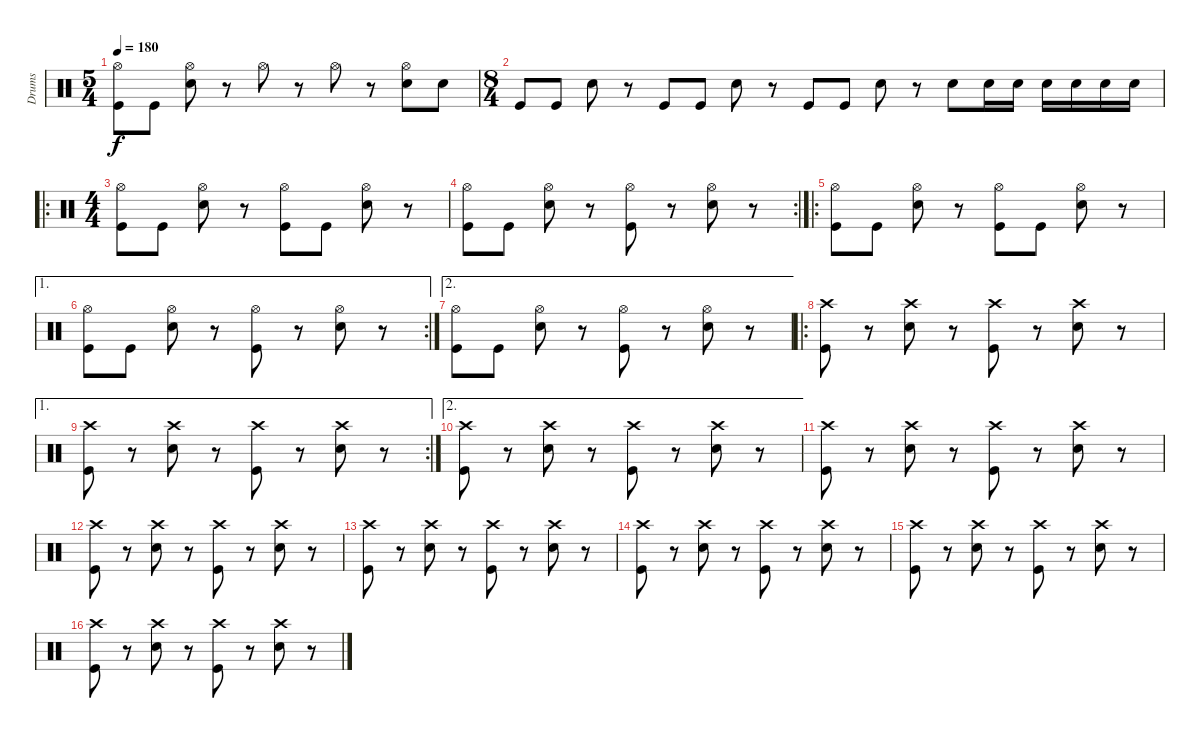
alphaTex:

\track ("Drums" "Drums") {instrument percussion}
\staff {score}
\articulation defaults
\ts (5 4)
\tempo 180
\clef neutral
\ks c
("Hi-Hat (open)" "Kick (hit)").8{dy f} "Kick (hit)".8 ("Hi-Hat (open)" "Electric Snare (hit)").8 r.8 "Hi-Hat (open)".8 r.8 "Hi-Hat (open)".8 r.8 ("Hi-Hat (open)" "Electric Snare (hit)").8 "Electric Snare (hit)".8 |
\ts (8 4)
"Kick (hit)".8 "Kick (hit)".8 "Electric Snare (hit)".8 r.8 "Kick (hit)".8 "Kick (hit)".8 "Electric Snare (hit)".8 r.8 "Kick (hit)".8 "Kick (hit)".8 "Electric Snare (hit)".8 r.8 "Electric Snare (hit)".8 "Electric Snare (hit)".16 "Electric Snare (hit)".16 "Electric Snare (hit)".16 "Electric Snare (hit)".16 "Electric Snare (hit)".16 "Electric Snare (hit)".16 |
\ro
\ts (4 4)
("Hi-Hat (open)" "Kick (hit)").8 "Kick (hit)".8 ("Hi-Hat (open)" "Electric Snare (hit)").8 r.8 ("Hi-Hat (open)" "Kick (hit)").8 "Kick (hit)".8 ("Hi-Hat (open)" "Electric Snare (hit)").8 r.8 |
\rc 2
("Hi-Hat (open)" "Kick (hit)").8 "Kick (hit)".8 ("Hi-Hat (open)" "Electric Snare (hit)").8 r.8 ("Hi-Hat (open)" "Kick (hit)").8 r.8 ("Hi-Hat (open)" "Electric Snare (hit)").8 r.8 |
\ro
("Hi-Hat (open)" "Kick (hit)").8 "Kick (hit)".8 ("Hi-Hat (open)" "Electric Snare (hit)").8 r.8 ("Hi-Hat (open)" "Kick (hit)").8 "Kick (hit)".8 ("Hi-Hat (open)" "Electric Snare (hit)").8 r.8 |
\ae 1
\rc 2
("Hi-Hat (open)" "Kick (hit)").8 "Kick (hit)".8 ("Hi-Hat (open)" "Electric Snare (hit)").8 r.8 ("Hi-Hat (open)" "Kick (hit)").8 r.8 ("Hi-Hat (open)" "Electric Snare (hit)").8 r.8 |
\ae 2
("Hi-Hat (open)" "Kick (hit)").8 "Kick (hit)".8 ("Hi-Hat (open)" "Electric Snare (hit)").8 r.8 ("Hi-Hat (open)" "Kick (hit)").8 r.8 ("Hi-Hat (open)" "Electric Snare (hit)").8 r.8 |
\ro
("Crash high (hit)" "Kick (hit)").8 r.8 ("Crash high (hit)" "Electric Snare (hit)").8 r.8 ("Crash high (hit)" "Kick (hit)").8 r.8 ("Crash high (hit)" "Electric Snare (hit)").8 r.8 |
\ae 1
\rc 2
("Crash high (hit)" "Kick (hit)").8 r.8 ("Crash high (hit)" "Electric Snare (hit)").8 r.8 ("Crash high (hit)" "Kick (hit)").8 r.8 ("Crash high (hit)" "Electric Snare (hit)").8 r.8 |
\ae 2
("Crash high (hit)" "Kick (hit)").8 r.8 ("Crash high (hit)" "Electric Snare (hit)").8 r.8 ("Crash high (hit)" "Kick (hit)").8 r.8 ("Crash high (hit)" "Electric Snare (hit)").8 r.8 |
("Crash high (hit)" "Kick (hit)").8 r.8 ("Crash high (hit)" "Electric Snare (hit)").8 r.8 ("Crash high (hit)" "Kick (hit)").8 r.8 ("Crash high (hit)" "Electric Snare (hit)").8 r.8 |
("Crash high (hit)" "Kick (hit)").8 r.8 ("Crash high (hit)" "Electric Snare (hit)").8 r.8 ("Crash high (hit)" "Kick (hit)").8 r.8 ("Crash high (hit)" "Electric Snare (hit)").8 r.8 |
("Crash high (hit)" "Kick (hit)").8 r.8 ("Crash high (hit)" "Electric Snare (hit)").8 r.8 ("Crash high (hit)" "Kick (hit)").8 r.8 ("Crash high (hit)" "Electric Snare (hit)").8 r.8 |
("Crash high (hit)" "Kick (hit)").8 r.8 ("Crash high (hit)" "Electric Snare (hit)").8 r.8 ("Crash high (hit)" "Kick (hit)").8 r.8 ("Crash high (hit)" "Electric Snare (hit)").8 r.8 |
("Crash high (hit)" "Kick (hit)").8 r.8 ("Crash high (hit)" "Electric Snare (hit)").8 r.8 ("Crash high (hit)" "Kick (hit)").8 r.8 ("Crash high (hit)" "Electric Snare (hit)").8 r.8 |
("Crash high (hit)" "Kick (hit)").8 r.8 ("Crash high (hit)" "Electric Snare (hit)").8 r.8 ("Crash high (hit)" "Kick (hit)").8 r.8 ("Crash high (hit)" "Electric Snare (hit)").8 r.8
